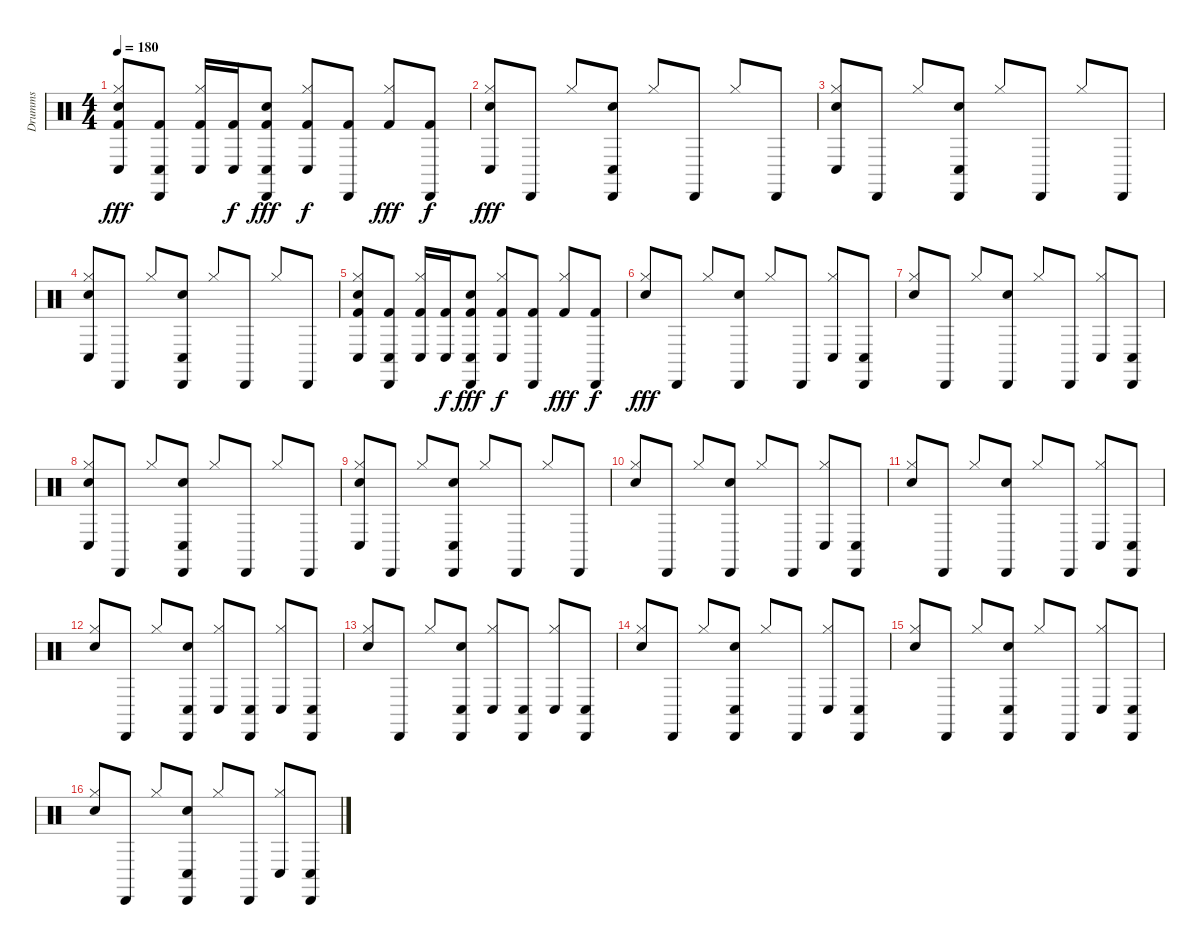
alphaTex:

\track ("Drumms" "Drumms") {instrument percussion}
\staff {score}
\articulation defaults
\ts (4 4)
\tempo 180
\clef neutral
\ks c
("Hi-Hat (closed)" "Metronome (bell)" "Conga low (hit)" "Kick (hit) 2").8{dy fff} ("Cabasa (hit)" "Conga low (hit)" "Kick (hit) 2").8 ("Hi-Hat (closed)" "Conga low (hit)" "Kick (hit) 2").16 ("Conga low (hit)" "Kick (hit) 2").16{dy f} ("Cabasa (hit)" "Metronome (bell)" "Conga low (hit)" "Kick (hit) 2").8{dy fff} ("Hi-Hat (closed)" "Conga low (hit)" "Kick (hit) 2").8{dy f} ("Cabasa (hit)" "Kick (hit) 2").8 ("Hi-Hat (closed)" "Kick (hit) 2").8{dy fff} ("Cabasa (hit)" "Kick (hit) 2").8{dy f} |
("Hi-Hat (closed)" "Metronome (bell)" "Conga low (hit)").8{dy fff} "Cabasa (hit)".8 "Hi-Hat (closed)".8 ("Cabasa (hit)" "Metronome (bell)" "Conga low (hit)").8 "Hi-Hat (closed)".8 "Cabasa (hit)".8 "Hi-Hat (closed)".8 "Cabasa (hit)".8 |
("Hi-Hat (closed)" "Metronome (bell)" "Conga low (hit)").8 "Cabasa (hit)".8 "Hi-Hat (closed)".8 ("Cabasa (hit)" "Metronome (bell)" "Conga low (hit)").8 "Hi-Hat (closed)".8 "Cabasa (hit)".8 "Hi-Hat (closed)".8 "Cabasa (hit)".8 |
("Hi-Hat (closed)" "Metronome (bell)" "Conga low (hit)").8 "Cabasa (hit)".8 "Hi-Hat (closed)".8 ("Cabasa (hit)" "Metronome (bell)" "Conga low (hit)").8 "Hi-Hat (closed)".8 "Cabasa (hit)".8 "Hi-Hat (closed)".8 "Cabasa (hit)".8 |
("Hi-Hat (closed)" "Metronome (bell)" "Conga low (hit)" "Kick (hit) 2").8 ("Cabasa (hit)" "Conga low (hit)" "Kick (hit) 2").8 ("Hi-Hat (closed)" "Conga low (hit)" "Kick (hit) 2").16 ("Conga low (hit)" "Kick (hit) 2").16{dy f} ("Cabasa (hit)" "Metronome (bell)" "Conga low (hit)" "Kick (hit) 2").8{dy fff} ("Hi-Hat (closed)" "Conga low (hit)" "Kick (hit) 2").8{dy f} ("Cabasa (hit)" "Kick (hit) 2").8 ("Hi-Hat (closed)" "Kick (hit) 2").8{dy fff} ("Cabasa (hit)" "Kick (hit) 2").8{dy f} |
("Hi-Hat (closed)" "Metronome (bell)").8{dy fff} "Cabasa (hit)".8 "Hi-Hat (closed)".8 ("Cabasa (hit)" "Metronome (bell)").8 "Hi-Hat (closed)".8 "Cabasa (hit)".8 ("Hi-Hat (closed)" "Conga low (hit)").8 ("Cabasa (hit)" "Conga low (hit)").8 |
("Hi-Hat (closed)" "Metronome (bell)").8 "Cabasa (hit)".8 "Hi-Hat (closed)".8 ("Cabasa (hit)" "Metronome (bell)").8 "Hi-Hat (closed)".8 "Cabasa (hit)".8 ("Hi-Hat (closed)" "Conga low (hit)").8 ("Cabasa (hit)" "Conga low (hit)").8 |
("Hi-Hat (closed)" "Metronome (bell)" "Conga low (hit)").8 "Cabasa (hit)".8 "Hi-Hat (closed)".8 ("Cabasa (hit)" "Metronome (bell)" "Conga low (hit)").8 "Hi-Hat (closed)".8 "Cabasa (hit)".8 "Hi-Hat (closed)".8 "Cabasa (hit)".8 |
("Hi-Hat (closed)" "Metronome (bell)" "Conga low (hit)").8 "Cabasa (hit)".8 "Hi-Hat (closed)".8 ("Cabasa (hit)" "Metronome (bell)" "Conga low (hit)").8 "Hi-Hat (closed)".8 "Cabasa (hit)".8 "Hi-Hat (closed)".8 "Cabasa (hit)".8 |
("Hi-Hat (closed)" "Metronome (bell)").8 "Cabasa (hit)".8 "Hi-Hat (closed)".8 ("Cabasa (hit)" "Metronome (bell)").8 "Hi-Hat (closed)".8 "Cabasa (hit)".8 ("Hi-Hat (closed)" "Conga low (hit)").8 ("Cabasa (hit)" "Conga low (hit)").8 |
("Hi-Hat (closed)" "Metronome (bell)").8 "Cabasa (hit)".8 "Hi-Hat (closed)".8 ("Cabasa (hit)" "Metronome (bell)").8 "Hi-Hat (closed)".8 "Cabasa (hit)".8 ("Hi-Hat (closed)" "Conga low (hit)").8 ("Cabasa (hit)" "Conga low (hit)").8 |
("Hi-Hat (closed)" "Metronome (bell)").8 "Cabasa (hit)".8 "Hi-Hat (closed)".8 ("Cabasa (hit)" "Metronome (bell)" "Conga low (hit)").8 ("Hi-Hat (closed)" "Conga low (hit)").8 ("Cabasa (hit)" "Conga low (hit)").8 ("Hi-Hat (closed)" "Conga low (hit)").8 ("Cabasa (hit)" "Conga low (hit)").8 |
("Hi-Hat (closed)" "Metronome (bell)").8 "Cabasa (hit)".8 "Hi-Hat (closed)".8 ("Cabasa (hit)" "Metronome (bell)" "Conga low (hit)").8 ("Hi-Hat (closed)" "Conga low (hit)").8 ("Cabasa (hit)" "Conga low (hit)").8 ("Hi-Hat (closed)" "Conga low (hit)").8 ("Cabasa (hit)" "Conga low (hit)").8 |
("Hi-Hat (closed)" "Metronome (bell)").8 "Cabasa (hit)".8 "Hi-Hat (closed)".8 ("Cabasa (hit)" "Metronome (bell)" "Conga low (hit)").8 "Hi-Hat (closed)".8 "Cabasa (hit)".8 ("Hi-Hat (closed)" "Conga low (hit)").8 ("Cabasa (hit)" "Conga low (hit)").8 |
("Hi-Hat (closed)" "Metronome (bell)").8 "Cabasa (hit)".8 "Hi-Hat (closed)".8 ("Cabasa (hit)" "Metronome (bell)" "Conga low (hit)").8 "Hi-Hat (closed)".8 "Cabasa (hit)".8 ("Hi-Hat (closed)" "Conga low (hit)").8 ("Cabasa (hit)" "Conga low (hit)").8 |
("Hi-Hat (closed)" "Metronome (bell)").8 "Cabasa (hit)".8 "Hi-Hat (closed)".8 ("Cabasa (hit)" "Metronome (bell)" "Conga low (hit)").8 "Hi-Hat (closed)".8 "Cabasa (hit)".8 ("Hi-Hat (closed)" "Conga low (hit)").8 ("Cabasa (hit)" "Conga low (hit)").8
